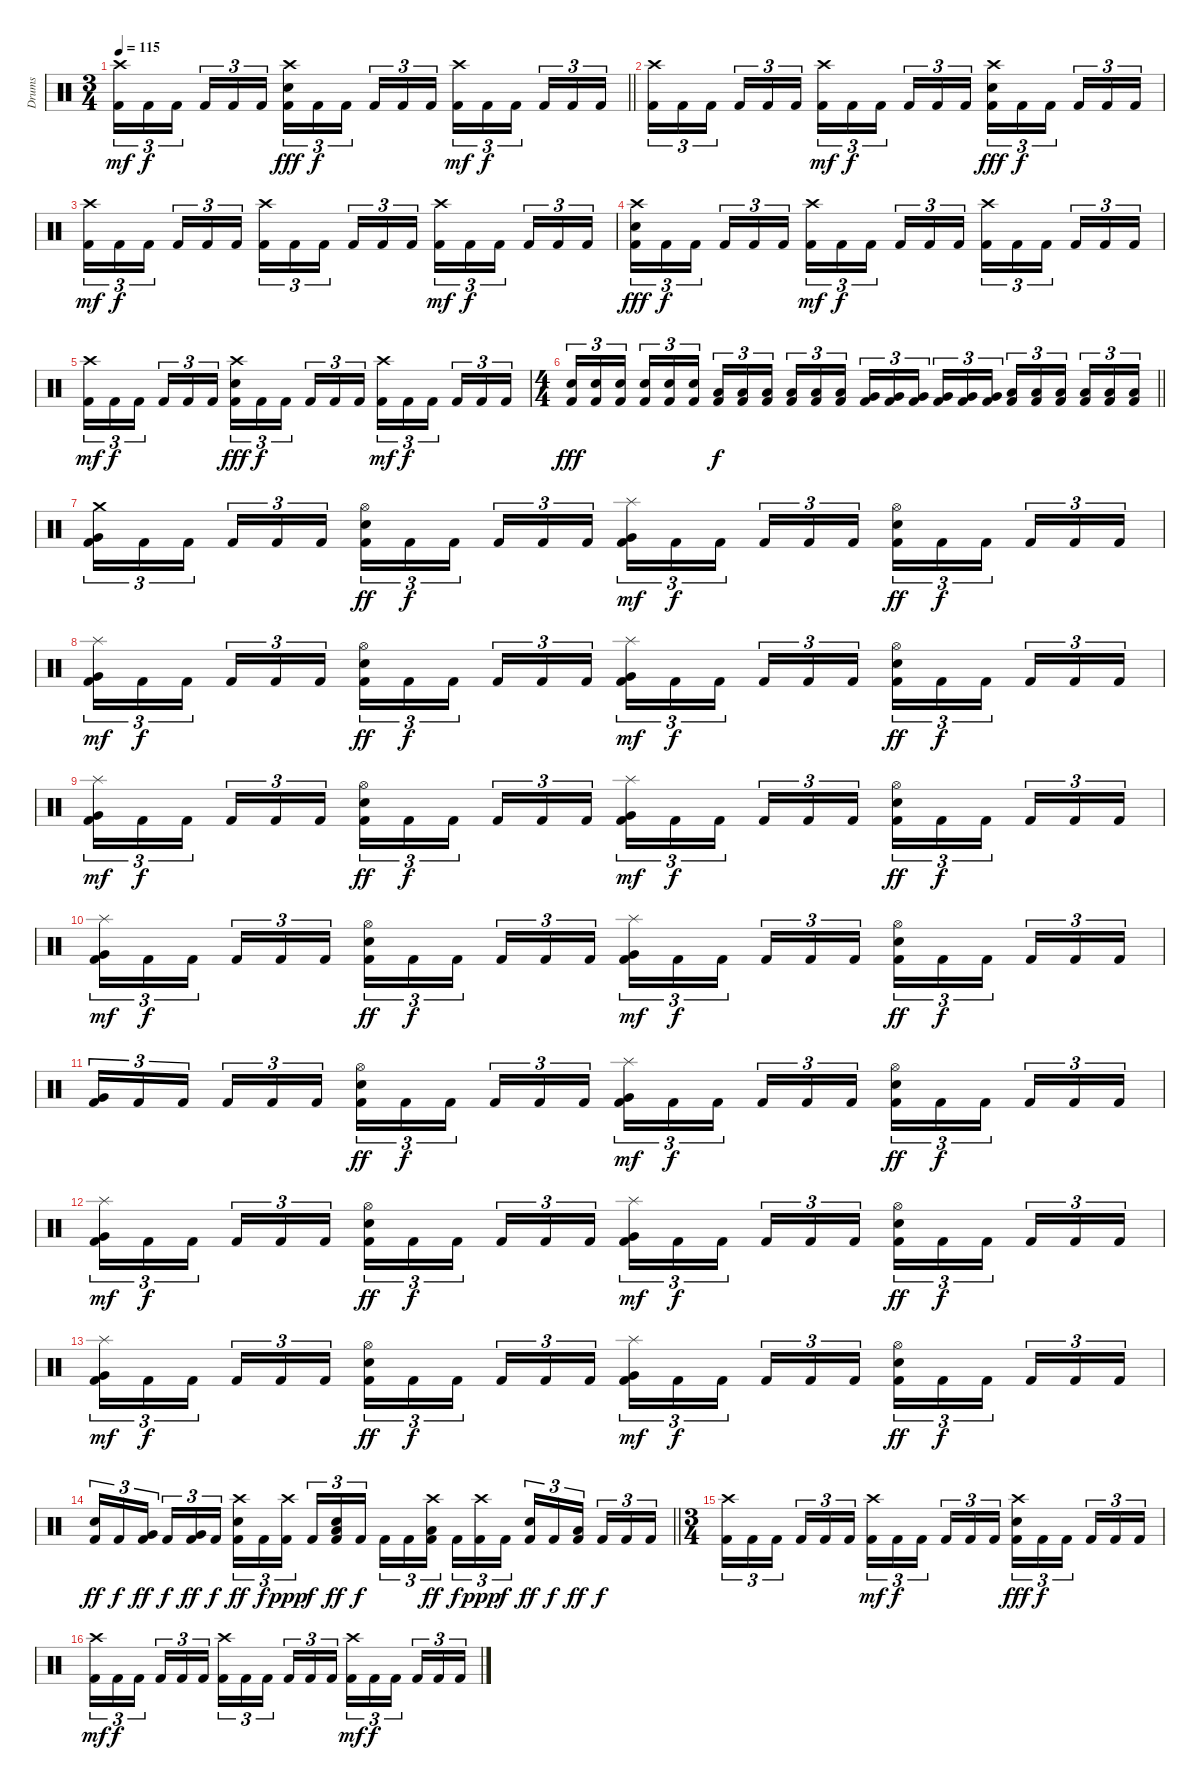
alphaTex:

\track ("Drums" "Drums") {instrument percussion}
\staff {score}
\articulation defaults
\ts (3 4)
\tempo 115
\clef neutral
\barLineRight lightlight
\ks c
("Crash high (hit)" "Kick (hit) 2").16{tu (3 2) dy mf} "Kick (hit) 2".16{tu (3 2) dy f} "Kick (hit) 2".16{tu (3 2) beam splitsecondary} "Kick (hit) 2".16{tu (3 2)} "Kick (hit) 2".16{tu (3 2)} "Kick (hit) 2".16{tu (3 2)} ("Crash high (hit)" "Snare (hit) 2" "Kick (hit) 2").16{tu (3 2) dy fff} "Kick (hit) 2".16{tu (3 2) dy f} "Kick (hit) 2".16{tu (3 2) beam splitsecondary} "Kick (hit) 2".16{tu (3 2)} "Kick (hit) 2".16{tu (3 2)} "Kick (hit) 2".16{tu (3 2)} ("Crash high (hit)" "Kick (hit) 2").16{tu (3 2) dy mf} "Kick (hit) 2".16{tu (3 2) dy f} "Kick (hit) 2".16{tu (3 2) beam splitsecondary} "Kick (hit) 2".16{tu (3 2)} "Kick (hit) 2".16{tu (3 2)} "Kick (hit) 2".16{tu (3 2)} |
("Crash high (hit)" "Kick (hit) 2").16{tu (3 2)} "Kick (hit) 2".16{tu (3 2)} "Kick (hit) 2".16{tu (3 2) beam splitsecondary} "Kick (hit) 2".16{tu (3 2)} "Kick (hit) 2".16{tu (3 2)} "Kick (hit) 2".16{tu (3 2)} ("Crash high (hit)" "Kick (hit) 2").16{tu (3 2) dy mf} "Kick (hit) 2".16{tu (3 2) dy f} "Kick (hit) 2".16{tu (3 2) beam splitsecondary} "Kick (hit) 2".16{tu (3 2)} "Kick (hit) 2".16{tu (3 2)} "Kick (hit) 2".16{tu (3 2)} ("Crash high (hit)" "Snare (hit) 2" "Kick (hit) 2").16{tu (3 2) dy fff} "Kick (hit) 2".16{tu (3 2) dy f} "Kick (hit) 2".16{tu (3 2) beam splitsecondary} "Kick (hit) 2".16{tu (3 2)} "Kick (hit) 2".16{tu (3 2)} "Kick (hit) 2".16{tu (3 2)} |
("Crash high (hit)" "Kick (hit) 2").16{tu (3 2) dy mf} "Kick (hit) 2".16{tu (3 2) dy f} "Kick (hit) 2".16{tu (3 2) beam splitsecondary} "Kick (hit) 2".16{tu (3 2)} "Kick (hit) 2".16{tu (3 2)} "Kick (hit) 2".16{tu (3 2)} ("Crash high (hit)" "Kick (hit) 2").16{tu (3 2)} "Kick (hit) 2".16{tu (3 2)} "Kick (hit) 2".16{tu (3 2) beam splitsecondary} "Kick (hit) 2".16{tu (3 2)} "Kick (hit) 2".16{tu (3 2)} "Kick (hit) 2".16{tu (3 2)} ("Crash high (hit)" "Kick (hit) 2").16{tu (3 2) dy mf} "Kick (hit) 2".16{tu (3 2) dy f} "Kick (hit) 2".16{tu (3 2) beam splitsecondary} "Kick (hit) 2".16{tu (3 2)} "Kick (hit) 2".16{tu (3 2)} "Kick (hit) 2".16{tu (3 2)} |
("Crash high (hit)" "Snare (hit) 2" "Kick (hit) 2").16{tu (3 2) dy fff} "Kick (hit) 2".16{tu (3 2) dy f} "Kick (hit) 2".16{tu (3 2) beam splitsecondary} "Kick (hit) 2".16{tu (3 2)} "Kick (hit) 2".16{tu (3 2)} "Kick (hit) 2".16{tu (3 2)} ("Crash high (hit)" "Kick (hit) 2").16{tu (3 2) dy mf} "Kick (hit) 2".16{tu (3 2) dy f} "Kick (hit) 2".16{tu (3 2) beam splitsecondary} "Kick (hit) 2".16{tu (3 2)} "Kick (hit) 2".16{tu (3 2)} "Kick (hit) 2".16{tu (3 2)} ("Crash high (hit)" "Kick (hit) 2").16{tu (3 2)} "Kick (hit) 2".16{tu (3 2)} "Kick (hit) 2".16{tu (3 2) beam splitsecondary} "Kick (hit) 2".16{tu (3 2)} "Kick (hit) 2".16{tu (3 2)} "Kick (hit) 2".16{tu (3 2)} |
("Crash high (hit)" "Kick (hit) 2").16{tu (3 2) dy mf} "Kick (hit) 2".16{tu (3 2) dy f} "Kick (hit) 2".16{tu (3 2) beam splitsecondary} "Kick (hit) 2".16{tu (3 2)} "Kick (hit) 2".16{tu (3 2)} "Kick (hit) 2".16{tu (3 2)} ("Crash high (hit)" "Snare (hit) 2" "Kick (hit) 2").16{tu (3 2) dy fff} "Kick (hit) 2".16{tu (3 2) dy f} "Kick (hit) 2".16{tu (3 2) beam splitsecondary} "Kick (hit) 2".16{tu (3 2)} "Kick (hit) 2".16{tu (3 2)} "Kick (hit) 2".16{tu (3 2)} ("Crash high (hit)" "Kick (hit) 2").16{tu (3 2) dy mf} "Kick (hit) 2".16{tu (3 2) dy f} "Kick (hit) 2".16{tu (3 2) beam splitsecondary} "Kick (hit) 2".16{tu (3 2)} "Kick (hit) 2".16{tu (3 2)} "Kick (hit) 2".16{tu (3 2)} |
\ts (4 4)
\barLineRight lightlight
("Snare (hit) 2" "Kick (hit) 2").16{tu (3 2) dy fff} ("Snare (hit) 2" "Kick (hit) 2").16{tu (3 2)} ("Snare (hit) 2" "Kick (hit) 2").16{tu (3 2) beam splitsecondary} ("Snare (hit) 2" "Kick (hit) 2").16{tu (3 2)} ("Snare (hit) 2" "Kick (hit) 2").16{tu (3 2)} ("Snare (hit) 2" "Kick (hit) 2").16{tu (3 2)} ("Low Tom (hit)" "Kick (hit) 2").16{tu (3 2) dy f} ("Low Tom (hit)" "Kick (hit) 2").16{tu (3 2)} ("Low Tom (hit)" "Kick (hit) 2").16{tu (3 2) beam splitsecondary} ("Low Tom (hit)" "Kick (hit) 2").16{tu (3 2)} ("Low Tom (hit)" "Kick (hit) 2").16{tu (3 2)} ("Low Tom (hit)" "Kick (hit) 2").16{tu (3 2)} ("Very Low Tom (hit)" "Kick (hit) 2").16{tu (3 2)} ("Very Low Tom (hit)" "Kick (hit) 2").16{tu (3 2)} ("Very Low Tom (hit)" "Kick (hit) 2").16{tu (3 2) beam splitsecondary} ("Very Low Tom (hit)" "Kick (hit) 2").16{tu (3 2)} ("Very Low Tom (hit)" "Kick (hit) 2").16{tu (3 2)} ("Very Low Tom (hit)" "Kick (hit) 2").16{tu (3 2)} ("Low Floor Tom (hit)" "Kick (hit) 2").16{tu (3 2)} ("Low Floor Tom (hit)" "Kick (hit) 2").16{tu (3 2)} ("Low Floor Tom (hit)" "Kick (hit) 2").16{tu (3 2) beam splitsecondary} ("Low Floor Tom (hit)" "Kick (hit) 2").16{tu (3 2)} ("Low Floor Tom (hit)" "Kick (hit) 2").16{tu (3 2)} ("Low Floor Tom (hit)" "Kick (hit) 2").16{tu (3 2)} |
\section ("" "")
("Crash medium (hit)" "Very Low Tom (hit)" "Kick (hit) 2").16{tu (3 2)} "Kick (hit) 2".16{tu (3 2)} "Kick (hit) 2".16{tu (3 2) beam splitsecondary} "Kick (hit) 2".16{tu (3 2)} "Kick (hit) 2".16{tu (3 2)} "Kick (hit) 2".16{tu (3 2)} ("Hi-Hat (open)" "Snare (hit) 2" "Kick (hit) 2").16{tu (3 2) dy ff} "Kick (hit) 2".16{tu (3 2) dy f} "Kick (hit) 2".16{tu (3 2) beam splitsecondary} "Kick (hit) 2".16{tu (3 2)} "Kick (hit) 2".16{tu (3 2)} "Kick (hit) 2".16{tu (3 2)} ("Splash (hit)" "Very Low Tom (hit)" "Kick (hit) 2").16{tu (3 2) dy mf} "Kick (hit) 2".16{tu (3 2) dy f} "Kick (hit) 2".16{tu (3 2) beam splitsecondary} "Kick (hit) 2".16{tu (3 2)} "Kick (hit) 2".16{tu (3 2)} "Kick (hit) 2".16{tu (3 2)} ("Hi-Hat (open)" "Snare (hit) 2" "Kick (hit) 2").16{tu (3 2) dy ff} "Kick (hit) 2".16{tu (3 2) dy f} "Kick (hit) 2".16{tu (3 2) beam splitsecondary} "Kick (hit) 2".16{tu (3 2)} "Kick (hit) 2".16{tu (3 2)} "Kick (hit) 2".16{tu (3 2)} |
("Splash (hit)" "Very Low Tom (hit)" "Kick (hit) 2").16{tu (3 2) dy mf} "Kick (hit) 2".16{tu (3 2) dy f} "Kick (hit) 2".16{tu (3 2) beam splitsecondary} "Kick (hit) 2".16{tu (3 2)} "Kick (hit) 2".16{tu (3 2)} "Kick (hit) 2".16{tu (3 2)} ("Hi-Hat (open)" "Snare (hit) 2" "Kick (hit) 2").16{tu (3 2) dy ff} "Kick (hit) 2".16{tu (3 2) dy f} "Kick (hit) 2".16{tu (3 2) beam splitsecondary} "Kick (hit) 2".16{tu (3 2)} "Kick (hit) 2".16{tu (3 2)} "Kick (hit) 2".16{tu (3 2)} ("Splash (hit)" "Very Low Tom (hit)" "Kick (hit) 2").16{tu (3 2) dy mf} "Kick (hit) 2".16{tu (3 2) dy f} "Kick (hit) 2".16{tu (3 2) beam splitsecondary} "Kick (hit) 2".16{tu (3 2)} "Kick (hit) 2".16{tu (3 2)} "Kick (hit) 2".16{tu (3 2)} ("Hi-Hat (open)" "Snare (hit) 2" "Kick (hit) 2").16{tu (3 2) dy ff} "Kick (hit) 2".16{tu (3 2) dy f} "Kick (hit) 2".16{tu (3 2) beam splitsecondary} "Kick (hit) 2".16{tu (3 2)} "Kick (hit) 2".16{tu (3 2)} "Kick (hit) 2".16{tu (3 2)} |
("Splash (hit)" "Very Low Tom (hit)" "Kick (hit) 2").16{tu (3 2) dy mf} "Kick (hit) 2".16{tu (3 2) dy f} "Kick (hit) 2".16{tu (3 2) beam splitsecondary} "Kick (hit) 2".16{tu (3 2)} "Kick (hit) 2".16{tu (3 2)} "Kick (hit) 2".16{tu (3 2)} ("Hi-Hat (open)" "Snare (hit) 2" "Kick (hit) 2").16{tu (3 2) dy ff} "Kick (hit) 2".16{tu (3 2) dy f} "Kick (hit) 2".16{tu (3 2) beam splitsecondary} "Kick (hit) 2".16{tu (3 2)} "Kick (hit) 2".16{tu (3 2)} "Kick (hit) 2".16{tu (3 2)} ("Splash (hit)" "Very Low Tom (hit)" "Kick (hit) 2").16{tu (3 2) dy mf} "Kick (hit) 2".16{tu (3 2) dy f} "Kick (hit) 2".16{tu (3 2) beam splitsecondary} "Kick (hit) 2".16{tu (3 2)} "Kick (hit) 2".16{tu (3 2)} "Kick (hit) 2".16{tu (3 2)} ("Hi-Hat (open)" "Snare (hit) 2" "Kick (hit) 2").16{tu (3 2) dy ff} "Kick (hit) 2".16{tu (3 2) dy f} "Kick (hit) 2".16{tu (3 2) beam splitsecondary} "Kick (hit) 2".16{tu (3 2)} "Kick (hit) 2".16{tu (3 2)} "Kick (hit) 2".16{tu (3 2)} |
("Splash (hit)" "Very Low Tom (hit)" "Kick (hit) 2").16{tu (3 2) dy mf} "Kick (hit) 2".16{tu (3 2) dy f} "Kick (hit) 2".16{tu (3 2) beam splitsecondary} "Kick (hit) 2".16{tu (3 2)} "Kick (hit) 2".16{tu (3 2)} "Kick (hit) 2".16{tu (3 2)} ("Hi-Hat (open)" "Snare (hit) 2" "Kick (hit) 2").16{tu (3 2) dy ff} "Kick (hit) 2".16{tu (3 2) dy f} "Kick (hit) 2".16{tu (3 2) beam splitsecondary} "Kick (hit) 2".16{tu (3 2)} "Kick (hit) 2".16{tu (3 2)} "Kick (hit) 2".16{tu (3 2)} ("Splash (hit)" "Very Low Tom (hit)" "Kick (hit) 2").16{tu (3 2) dy mf} "Kick (hit) 2".16{tu (3 2) dy f} "Kick (hit) 2".16{tu (3 2) beam splitsecondary} "Kick (hit) 2".16{tu (3 2)} "Kick (hit) 2".16{tu (3 2)} "Kick (hit) 2".16{tu (3 2)} ("Hi-Hat (open)" "Snare (hit) 2" "Kick (hit) 2").16{tu (3 2) dy ff} "Kick (hit) 2".16{tu (3 2) dy f} "Kick (hit) 2".16{tu (3 2) beam splitsecondary} "Kick (hit) 2".16{tu (3 2)} "Kick (hit) 2".16{tu (3 2)} "Kick (hit) 2".16{tu (3 2)} |
("Very Low Tom (hit)" "Kick (hit) 2").16{tu (3 2)} "Kick (hit) 2".16{tu (3 2)} "Kick (hit) 2".16{tu (3 2) beam splitsecondary} "Kick (hit) 2".16{tu (3 2)} "Kick (hit) 2".16{tu (3 2)} "Kick (hit) 2".16{tu (3 2)} ("Hi-Hat (open)" "Snare (hit) 2" "Kick (hit) 2").16{tu (3 2) dy ff} "Kick (hit) 2".16{tu (3 2) dy f} "Kick (hit) 2".16{tu (3 2) beam splitsecondary} "Kick (hit) 2".16{tu (3 2)} "Kick (hit) 2".16{tu (3 2)} "Kick (hit) 2".16{tu (3 2)} ("Splash (hit)" "Very Low Tom (hit)" "Kick (hit) 2").16{tu (3 2) dy mf} "Kick (hit) 2".16{tu (3 2) dy f} "Kick (hit) 2".16{tu (3 2) beam splitsecondary} "Kick (hit) 2".16{tu (3 2)} "Kick (hit) 2".16{tu (3 2)} "Kick (hit) 2".16{tu (3 2)} ("Hi-Hat (open)" "Snare (hit) 2" "Kick (hit) 2").16{tu (3 2) dy ff} "Kick (hit) 2".16{tu (3 2) dy f} "Kick (hit) 2".16{tu (3 2) beam splitsecondary} "Kick (hit) 2".16{tu (3 2)} "Kick (hit) 2".16{tu (3 2)} "Kick (hit) 2".16{tu (3 2)} |
("Splash (hit)" "Very Low Tom (hit)" "Kick (hit) 2").16{tu (3 2) dy mf} "Kick (hit) 2".16{tu (3 2) dy f} "Kick (hit) 2".16{tu (3 2) beam splitsecondary} "Kick (hit) 2".16{tu (3 2)} "Kick (hit) 2".16{tu (3 2)} "Kick (hit) 2".16{tu (3 2)} ("Hi-Hat (open)" "Snare (hit) 2" "Kick (hit) 2").16{tu (3 2) dy ff} "Kick (hit) 2".16{tu (3 2) dy f} "Kick (hit) 2".16{tu (3 2) beam splitsecondary} "Kick (hit) 2".16{tu (3 2)} "Kick (hit) 2".16{tu (3 2)} "Kick (hit) 2".16{tu (3 2)} ("Splash (hit)" "Very Low Tom (hit)" "Kick (hit) 2").16{tu (3 2) dy mf} "Kick (hit) 2".16{tu (3 2) dy f} "Kick (hit) 2".16{tu (3 2) beam splitsecondary} "Kick (hit) 2".16{tu (3 2)} "Kick (hit) 2".16{tu (3 2)} "Kick (hit) 2".16{tu (3 2)} ("Hi-Hat (open)" "Snare (hit) 2" "Kick (hit) 2").16{tu (3 2) dy ff} "Kick (hit) 2".16{tu (3 2) dy f} "Kick (hit) 2".16{tu (3 2) beam splitsecondary} "Kick (hit) 2".16{tu (3 2)} "Kick (hit) 2".16{tu (3 2)} "Kick (hit) 2".16{tu (3 2)} |
("Splash (hit)" "Very Low Tom (hit)" "Kick (hit) 2").16{tu (3 2) dy mf} "Kick (hit) 2".16{tu (3 2) dy f} "Kick (hit) 2".16{tu (3 2) beam splitsecondary} "Kick (hit) 2".16{tu (3 2)} "Kick (hit) 2".16{tu (3 2)} "Kick (hit) 2".16{tu (3 2)} ("Hi-Hat (open)" "Snare (hit) 2" "Kick (hit) 2").16{tu (3 2) dy ff} "Kick (hit) 2".16{tu (3 2) dy f} "Kick (hit) 2".16{tu (3 2) beam splitsecondary} "Kick (hit) 2".16{tu (3 2)} "Kick (hit) 2".16{tu (3 2)} "Kick (hit) 2".16{tu (3 2)} ("Splash (hit)" "Very Low Tom (hit)" "Kick (hit) 2").16{tu (3 2) dy mf} "Kick (hit) 2".16{tu (3 2) dy f} "Kick (hit) 2".16{tu (3 2) beam splitsecondary} "Kick (hit) 2".16{tu (3 2)} "Kick (hit) 2".16{tu (3 2)} "Kick (hit) 2".16{tu (3 2)} ("Hi-Hat (open)" "Snare (hit) 2" "Kick (hit) 2").16{tu (3 2) dy ff} "Kick (hit) 2".16{tu (3 2) dy f} "Kick (hit) 2".16{tu (3 2) beam splitsecondary} "Kick (hit) 2".16{tu (3 2)} "Kick (hit) 2".16{tu (3 2)} "Kick (hit) 2".16{tu (3 2)} |
\barLineRight lightlight
("Snare (hit) 2" "Kick (hit) 2").16{tu (3 2) dy ff} "Kick (hit) 2".16{tu (3 2) dy f} ("Very Low Tom (hit)" "Kick (hit) 2").16{tu (3 2) dy ff beam splitsecondary} "Kick (hit) 2".16{tu (3 2) dy f} ("Very Low Tom (hit)" "Kick (hit) 2").16{tu (3 2) dy ff} "Kick (hit) 2".16{tu (3 2) dy f} ("Crash high (hit)" "Snare (hit) 2" "Kick (hit) 2").16{tu (3 2) dy ff} "Kick (hit) 2".16{tu (3 2) dy f} ("Crash high (hit)" "Kick (hit) 2").16{tu (3 2) dy ppp beam splitsecondary} "Kick (hit) 2".16{tu (3 2) dy f} ("Snare (hit) 2" "Low Tom (hit)" "Kick (hit) 2").16{tu (3 2) dy ff} "Kick (hit) 2".16{tu (3 2) dy f} "Kick (hit) 2".16{tu (3 2)} "Kick (hit) 2".16{tu (3 2)} ("Crash high (hit)" "Low Floor Tom (hit)" "Kick (hit) 2").16{tu (3 2) dy ff beam splitsecondary} "Kick (hit) 2".16{tu (3 2) dy f} ("Crash high (hit)" "Kick (hit) 2").16{tu (3 2) dy ppp} "Kick (hit) 2".16{tu (3 2) dy f} ("Snare (hit) 2" "Kick (hit) 2").16{tu (3 2) dy ff} "Kick (hit) 2".16{tu (3 2) dy f} ("Low Tom (hit)" "Kick (hit) 2").16{tu (3 2) dy ff beam splitsecondary} "Kick (hit) 2".16{tu (3 2) dy f} "Kick (hit) 2".16{tu (3 2)} "Kick (hit) 2".16{tu (3 2)} |
\ts (3 4)
\section ("" "")
("Crash high (hit)" "Kick (hit) 2").16{tu (3 2)} "Kick (hit) 2".16{tu (3 2)} "Kick (hit) 2".16{tu (3 2) beam splitsecondary} "Kick (hit) 2".16{tu (3 2)} "Kick (hit) 2".16{tu (3 2)} "Kick (hit) 2".16{tu (3 2)} ("Crash high (hit)" "Kick (hit) 2").16{tu (3 2) dy mf} "Kick (hit) 2".16{tu (3 2) dy f} "Kick (hit) 2".16{tu (3 2) beam splitsecondary} "Kick (hit) 2".16{tu (3 2)} "Kick (hit) 2".16{tu (3 2)} "Kick (hit) 2".16{tu (3 2)} ("Crash high (hit)" "Snare (hit) 2" "Kick (hit) 2").16{tu (3 2) dy fff} "Kick (hit) 2".16{tu (3 2) dy f} "Kick (hit) 2".16{tu (3 2) beam splitsecondary} "Kick (hit) 2".16{tu (3 2)} "Kick (hit) 2".16{tu (3 2)} "Kick (hit) 2".16{tu (3 2)} |
("Crash high (hit)" "Kick (hit) 2").16{tu (3 2) dy mf} "Kick (hit) 2".16{tu (3 2) dy f} "Kick (hit) 2".16{tu (3 2) beam splitsecondary} "Kick (hit) 2".16{tu (3 2)} "Kick (hit) 2".16{tu (3 2)} "Kick (hit) 2".16{tu (3 2)} ("Crash high (hit)" "Kick (hit) 2").16{tu (3 2)} "Kick (hit) 2".16{tu (3 2)} "Kick (hit) 2".16{tu (3 2) beam splitsecondary} "Kick (hit) 2".16{tu (3 2)} "Kick (hit) 2".16{tu (3 2)} "Kick (hit) 2".16{tu (3 2)} ("Crash high (hit)" "Kick (hit) 2").16{tu (3 2) dy mf} "Kick (hit) 2".16{tu (3 2) dy f} "Kick (hit) 2".16{tu (3 2) beam splitsecondary} "Kick (hit) 2".16{tu (3 2)} "Kick (hit) 2".16{tu (3 2)} "Kick (hit) 2".16{tu (3 2)}
